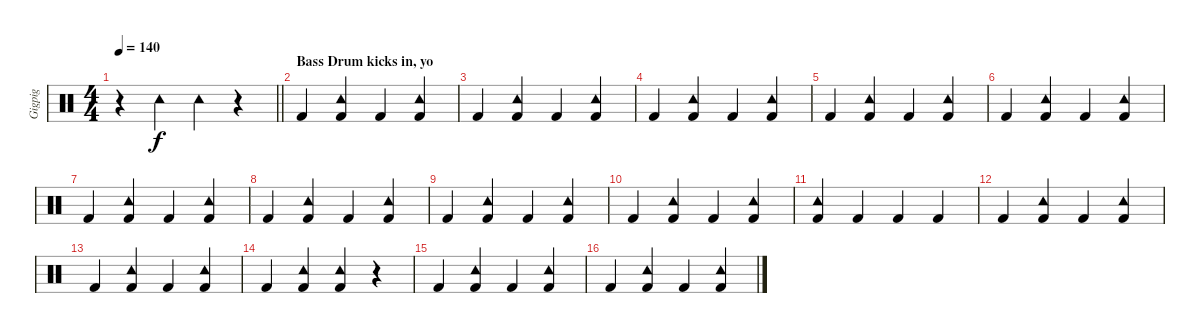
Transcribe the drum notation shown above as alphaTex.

\track ("Gigpig" "Gigpig") {instrument percussion}
\staff {score}
\articulation defaults
\ts (4 4)
\tempo 140
\clef neutral
\barLineRight lightlight
\ks c
r.4{dy f} "Tambourine (hit)".4 "Tambourine (hit)".4 r.4 |
\section ("" "Bass Drum kicks in, yo")
"Kick (hit) 2".4 ("Tambourine (hit)" "Kick (hit) 2").4 "Kick (hit) 2".4 ("Tambourine (hit)" "Kick (hit) 2").4 |
"Kick (hit) 2".4 ("Tambourine (hit)" "Kick (hit) 2").4 "Kick (hit) 2".4 ("Tambourine (hit)" "Kick (hit) 2").4 |
"Kick (hit) 2".4 ("Tambourine (hit)" "Kick (hit) 2").4 "Kick (hit) 2".4 ("Tambourine (hit)" "Kick (hit) 2").4 |
"Kick (hit) 2".4 ("Tambourine (hit)" "Kick (hit) 2").4 "Kick (hit) 2".4 ("Tambourine (hit)" "Kick (hit) 2").4 |
"Kick (hit) 2".4 ("Tambourine (hit)" "Kick (hit) 2").4 "Kick (hit) 2".4 ("Tambourine (hit)" "Kick (hit) 2").4 |
"Kick (hit) 2".4 ("Tambourine (hit)" "Kick (hit) 2").4 "Kick (hit) 2".4 ("Tambourine (hit)" "Kick (hit) 2").4 |
"Kick (hit) 2".4 ("Tambourine (hit)" "Kick (hit) 2").4 "Kick (hit) 2".4 ("Tambourine (hit)" "Kick (hit) 2").4 |
"Kick (hit) 2".4 ("Tambourine (hit)" "Kick (hit) 2").4 "Kick (hit) 2".4 ("Tambourine (hit)" "Kick (hit) 2").4 |
"Kick (hit) 2".4 ("Tambourine (hit)" "Kick (hit) 2").4 "Kick (hit) 2".4 ("Tambourine (hit)" "Kick (hit) 2").4 |
("Tambourine (hit)" "Kick (hit) 2").4 "Kick (hit) 2".4 "Kick (hit) 2".4 "Kick (hit) 2".4 |
"Kick (hit) 2".4 ("Tambourine (hit)" "Kick (hit) 2").4 "Kick (hit) 2".4 ("Tambourine (hit)" "Kick (hit) 2").4 |
"Kick (hit) 2".4 ("Tambourine (hit)" "Kick (hit) 2").4 "Kick (hit) 2".4 ("Tambourine (hit)" "Kick (hit) 2").4 |
"Kick (hit) 2".4 ("Tambourine (hit)" "Kick (hit) 2").4 ("Tambourine (hit)" "Kick (hit) 2").4 r.4 |
"Kick (hit) 2".4 ("Tambourine (hit)" "Kick (hit) 2").4 "Kick (hit) 2".4 ("Tambourine (hit)" "Kick (hit) 2").4 |
"Kick (hit) 2".4 ("Tambourine (hit)" "Kick (hit) 2").4 "Kick (hit) 2".4 ("Tambourine (hit)" "Kick (hit) 2").4
